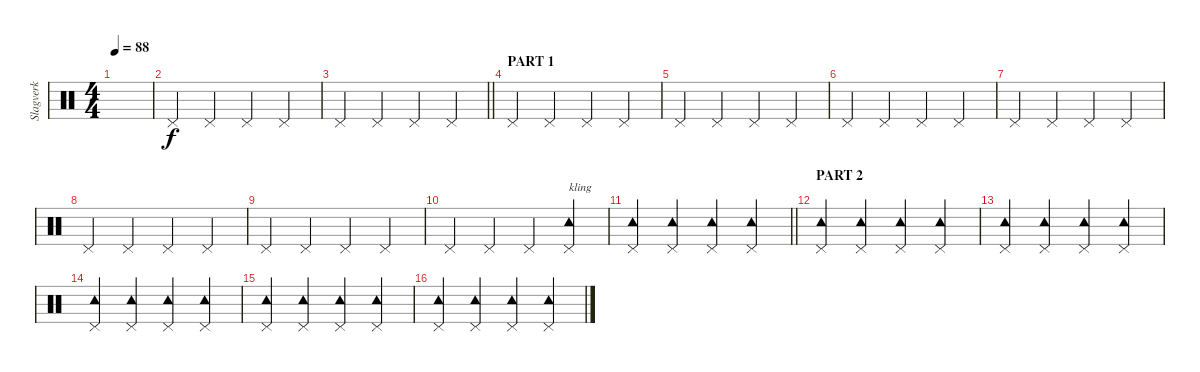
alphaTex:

\track ("Slagverk" "Slagverk") {instrument percussion}
\staff {score}
\articulation defaults
\ts (4 4)
\tempo 88
\clef neutral
\ks c
|
"Pedal Hi-Hat (hit)".4 "Pedal Hi-Hat (hit)".4 "Pedal Hi-Hat (hit)".4 "Pedal Hi-Hat (hit)".4 |
\barLineRight lightlight "Pedal Hi-Hat (hit)".4 "Pedal Hi-Hat (hit)".4 "Pedal Hi-Hat (hit)".4 "Pedal Hi-Hat (hit)".4
|
\section ("" "PART 1")
"Pedal Hi-Hat (hit)".4 "Pedal Hi-Hat (hit)".4 "Pedal Hi-Hat (hit)".4 "Pedal Hi-Hat (hit)".4 |
"Pedal Hi-Hat (hit)".4 "Pedal Hi-Hat (hit)".4 "Pedal Hi-Hat (hit)".4 "Pedal Hi-Hat (hit)".4 |
"Pedal Hi-Hat (hit)".4 "Pedal Hi-Hat (hit)".4 "Pedal Hi-Hat (hit)".4 "Pedal Hi-Hat (hit)".4 |
"Pedal Hi-Hat (hit)".4 "Pedal Hi-Hat (hit)".4 "Pedal Hi-Hat (hit)".4 "Pedal Hi-Hat (hit)".4 |
"Pedal Hi-Hat (hit)".4 "Pedal Hi-Hat (hit)".4 "Pedal Hi-Hat (hit)".4 "Pedal Hi-Hat (hit)".4 |
"Pedal Hi-Hat (hit)".4 "Pedal Hi-Hat (hit)".4 "Pedal Hi-Hat (hit)".4 "Pedal Hi-Hat (hit)".4 |
"Pedal Hi-Hat (hit)".4 "Pedal Hi-Hat (hit)".4 "Pedal Hi-Hat (hit)".4 ("Pedal Hi-Hat (hit)" "Tambourine (hit)").4{txt "kling"} |
\barLineRight lightlight
("Pedal Hi-Hat (hit)" "Tambourine (hit)").4 ("Pedal Hi-Hat (hit)" "Tambourine (hit)").4 ("Pedal Hi-Hat (hit)" "Tambourine (hit)").4 ("Pedal Hi-Hat (hit)" "Tambourine (hit)").4 |
\section ("" "PART 2")
("Pedal Hi-Hat (hit)" "Tambourine (hit)").4 ("Pedal Hi-Hat (hit)" "Tambourine (hit)").4 ("Pedal Hi-Hat (hit)" "Tambourine (hit)").4 ("Pedal Hi-Hat (hit)" "Tambourine (hit)").4 |
("Pedal Hi-Hat (hit)" "Tambourine (hit)").4 ("Pedal Hi-Hat (hit)" "Tambourine (hit)").4 ("Pedal Hi-Hat (hit)" "Tambourine (hit)").4 ("Pedal Hi-Hat (hit)" "Tambourine (hit)").4 |
("Pedal Hi-Hat (hit)" "Tambourine (hit)").4 ("Pedal Hi-Hat (hit)" "Tambourine (hit)").4 ("Pedal Hi-Hat (hit)" "Tambourine (hit)").4 ("Pedal Hi-Hat (hit)" "Tambourine (hit)").4 |
("Pedal Hi-Hat (hit)" "Tambourine (hit)").4 ("Pedal Hi-Hat (hit)" "Tambourine (hit)").4 ("Pedal Hi-Hat (hit)" "Tambourine (hit)").4 ("Pedal Hi-Hat (hit)" "Tambourine (hit)").4 |
("Pedal Hi-Hat (hit)" "Tambourine (hit)").4 ("Pedal Hi-Hat (hit)" "Tambourine (hit)").4 ("Pedal Hi-Hat (hit)" "Tambourine (hit)").4 ("Pedal Hi-Hat (hit)" "Tambourine (hit)").4
